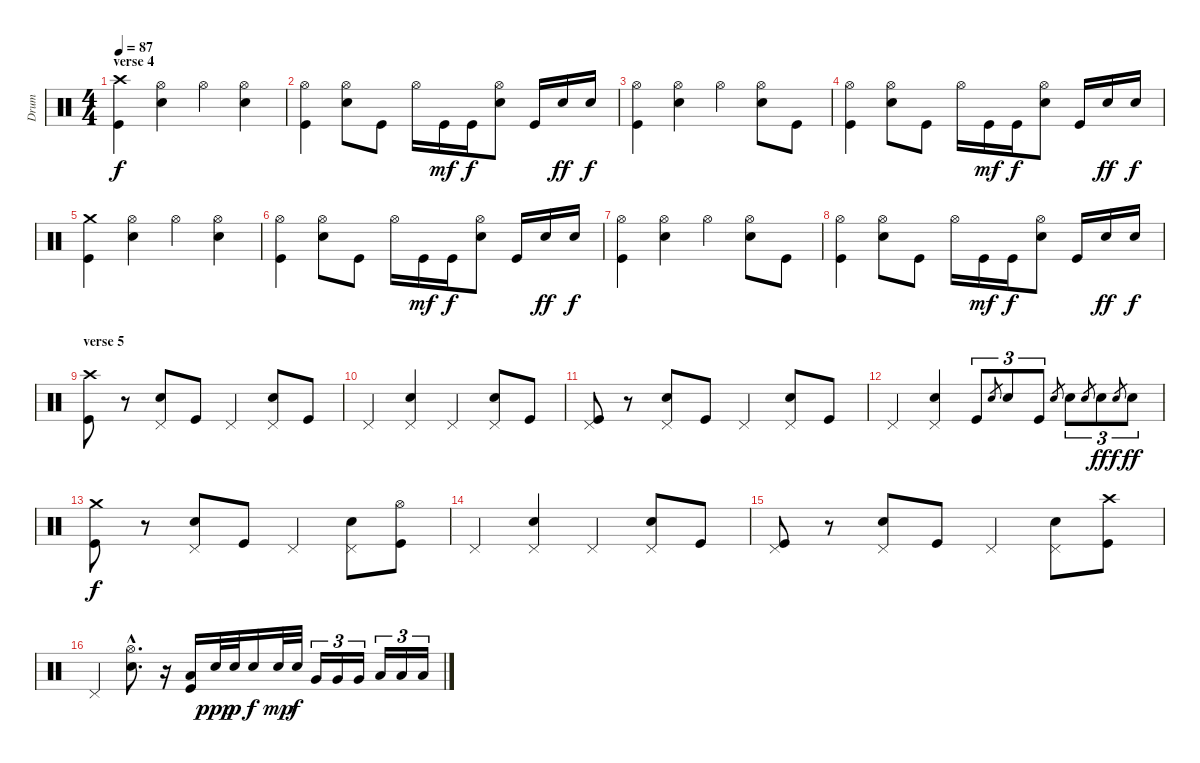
\track ("Drum" "Drum") {instrument percussion}
\staff {score}
\articulation defaults
\ts (4 4)
\section ("" "verse 4")
\tempo 87
\clef neutral
\ks c
("Crash high (hit)" "Kick (hit)").4{dy f} ("Hi-Hat (open)" "Snare (hit) 2").4 "Hi-Hat (open)".4 ("Hi-Hat (open)" "Snare (hit) 2").4 |
("Hi-Hat (open)" "Kick (hit)").4 ("Hi-Hat (open)" "Snare (hit) 2").8 "Kick (hit)".8 "Hi-Hat (open)".16 "Kick (hit)".16{dy mf} "Kick (hit)".16{dy f} ("Hi-Hat (open)" "Snare (hit) 2").8 "Kick (hit)".16 "Snare (hit) 2".16{dy ff} "Snare (hit) 2".16{dy f} |
("Hi-Hat (open)" "Kick (hit)").4 ("Hi-Hat (open)" "Snare (hit) 2").4 "Hi-Hat (open)".4 ("Hi-Hat (open)" "Snare (hit) 2").8 "Kick (hit)".8 |
("Hi-Hat (open)" "Kick (hit)").4 ("Hi-Hat (open)" "Snare (hit) 2").8 "Kick (hit)".8 "Hi-Hat (open)".16 "Kick (hit)".16{dy mf} "Kick (hit)".16{dy f} ("Hi-Hat (open)" "Snare (hit) 2").8 "Kick (hit)".16 "Snare (hit) 2".16{dy ff} "Snare (hit) 2".16{dy f} |
("Crash medium (hit)" "Kick (hit)").4 ("Hi-Hat (open)" "Snare (hit) 2").4 "Hi-Hat (open)".4 ("Hi-Hat (open)" "Snare (hit) 2").4 |
("Hi-Hat (open)" "Kick (hit)").4 ("Hi-Hat (open)" "Snare (hit) 2").8 "Kick (hit)".8 "Hi-Hat (open)".16 "Kick (hit)".16{dy mf} "Kick (hit)".16{dy f} ("Hi-Hat (open)" "Snare (hit) 2").8 "Kick (hit)".16 "Snare (hit) 2".16{dy ff} "Snare (hit) 2".16{dy f} |
("Hi-Hat (open)" "Kick (hit)").4 ("Hi-Hat (open)" "Snare (hit) 2").4 "Hi-Hat (open)".4 ("Hi-Hat (open)" "Snare (hit) 2").8 "Kick (hit)".8 |
("Hi-Hat (open)" "Kick (hit)").4 ("Hi-Hat (open)" "Snare (hit) 2").8 "Kick (hit)".8 "Hi-Hat (open)".16 "Kick (hit)".16{dy mf} "Kick (hit)".16{dy f} ("Hi-Hat (open)" "Snare (hit) 2").8 "Kick (hit)".16 "Snare (hit) 2".16{dy ff} "Snare (hit) 2".16{dy f} |
\section ("" "verse 5")
("Crash high (hit)" "Kick (hit)").8 r.8 ("Pedal Hi-Hat (hit)" "Snare (hit) 2").8 "Kick (hit)".8 "Pedal Hi-Hat (hit)".4 ("Pedal Hi-Hat (hit)" "Snare (hit) 2").8 "Kick (hit)".8 |
"Pedal Hi-Hat (hit)".4 ("Pedal Hi-Hat (hit)" "Snare (hit) 2").4 "Pedal Hi-Hat (hit)".4 ("Pedal Hi-Hat (hit)" "Snare (hit) 2").8 "Kick (hit)".8 |
("Pedal Hi-Hat (hit)" "Kick (hit)").8 r.8 ("Pedal Hi-Hat (hit)" "Snare (hit) 2").8 "Kick (hit)".8 "Pedal Hi-Hat (hit)".4 ("Pedal Hi-Hat (hit)" "Snare (hit) 2").8 "Kick (hit)".8 |
"Pedal Hi-Hat (hit)".4 ("Pedal Hi-Hat (hit)" "Snare (hit) 2").4 "Kick (hit)".8{tu (3 2)} "Snare (hit) 2".8{gr} "Snare (hit) 2".8{tu (3 2)} "Kick (hit)".8{tu (3 2)} "Snare (hit) 2".8{gr} "Snare (hit) 2".8{tu (3 2)} "Snare (hit) 2".8{gr} "Snare (hit) 2".8{tu (3 2) dy ff} "Snare (hit) 2".8{gr dy f} "Snare (hit) 2".8{tu (3 2) dy ff} |
("Crash medium (hit)" "Kick (hit)").8{dy f} r.8 ("Pedal Hi-Hat (hit)" "Snare (hit) 2").8 "Kick (hit)".8 "Pedal Hi-Hat (hit)".4 ("Pedal Hi-Hat (hit)" "Snare (hit) 2").8 ("Hi-Hat (open)" "Kick (hit)").8 |
"Pedal Hi-Hat (hit)".4 ("Pedal Hi-Hat (hit)" "Snare (hit) 2").4 "Pedal Hi-Hat (hit)".4 ("Pedal Hi-Hat (hit)" "Snare (hit) 2").8 "Kick (hit)".8 |
("Pedal Hi-Hat (hit)" "Kick (hit)").8 r.8 ("Pedal Hi-Hat (hit)" "Snare (hit) 2").8 "Kick (hit)".8 "Pedal Hi-Hat (hit)".4 ("Pedal Hi-Hat (hit)" "Snare (hit) 2").8 ("Crash high (hit)" "Kick (hit)").8 |
"Pedal Hi-Hat (hit)".4 ("Hi-Hat (open)"{hac} "Snare (hit) 2"{hac}).8{d} r.16 ("Low Tom (hit)" "Kick (hit)").16 "Snare (hit) 2".32{dy ppp} "Snare (hit) 2".32{dy p} "Snare (hit) 2".16{dy f} "Snare (hit) 2".32{dy mp} "Snare (hit) 2".32{dy f} "Very Low Tom (hit)".16{tu (3 2)} "Very Low Tom (hit)".16{tu (3 2)} "Very Low Tom (hit)".16{tu (3 2)} "Low Floor Tom (hit)".16{tu (3 2)} "Low Floor Tom (hit)".16{tu (3 2)} "Low Floor Tom (hit)".16{tu (3 2)}
